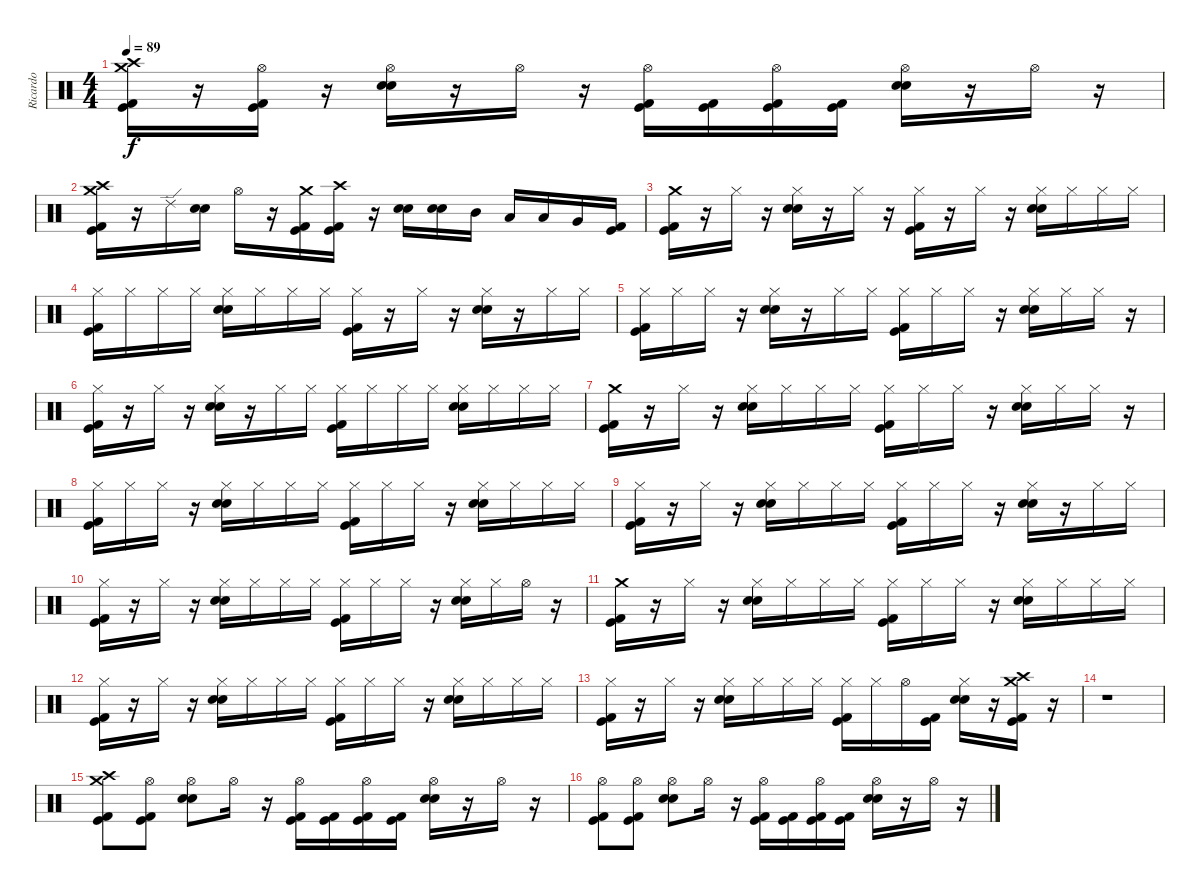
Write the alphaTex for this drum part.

\track ("Ricardo" "Ricardo") {instrument percussion}
\staff {score}
\articulation defaults
\ts (4 4)
\tempo 89
\clef neutral
\ks c
("Crash high (hit)" "Crash medium (hit)" "Kick (hit) 2" "Kick (hit)").16{dy f} r.16 ("Hi-Hat (open)" "Kick (hit) 2" "Kick (hit)").16 r.16 ("Hi-Hat (open)" "Electric Snare (hit)" "Snare (hit) 2").16 r.16 "Hi-Hat (open)".16 r.16 ("Hi-Hat (open)" "Kick (hit) 2" "Kick (hit)").16 ("Kick (hit) 2" "Kick (hit)").16 ("Hi-Hat (open)" "Kick (hit) 2" "Kick (hit)").16 ("Kick (hit) 2" "Kick (hit)").16 ("Hi-Hat (open)" "Electric Snare (hit)" "Snare (hit) 2").16 r.16 "Hi-Hat (open)".16 r.16 |
("Crash high (hit)" "Crash medium (hit)" "Kick (hit) 2" "Kick (hit)").16 r.16 "Ride (edge) 2".16 ("Electric Snare (hit)" "Snare (hit) 2").16 "Hi-Hat (open)".16 r.16 ("Crash medium (hit)" "Kick (hit) 2" "Kick (hit)").16 ("Crash high (hit)" "Kick (hit) 2" "Kick (hit)").16 r.16 ("Electric Snare (hit)" "Snare (hit) 2").16 ("Electric Snare (hit)" "Snare (hit) 2").16 "Mid Tom (hit)".16 "Low Tom (hit)".16 "Low Tom (hit)".16 "Very Low Tom (hit)".16 ("Kick (hit) 2" "Kick (hit)").16 |
("Crash medium (hit)" "Kick (hit) 2" "Kick (hit)").16 r.16 "Hi-Hat (closed)".16 r.16 ("Hi-Hat (closed)" "Electric Snare (hit)" "Snare (hit) 2").16 r.16 "Hi-Hat (closed)".16 r.16 ("Hi-Hat (closed)" "Kick (hit) 2" "Kick (hit)").16 r.16 "Hi-Hat (closed)".16 r.16 ("Hi-Hat (closed)" "Electric Snare (hit)" "Snare (hit) 2").16 "Hi-Hat (closed)".16 "Hi-Hat (closed)".16 "Hi-Hat (closed)".16 |
("Hi-Hat (closed)" "Kick (hit) 2" "Kick (hit)").16 "Hi-Hat (closed)".16 "Hi-Hat (closed)".16 "Hi-Hat (closed)".16 ("Hi-Hat (closed)" "Electric Snare (hit)" "Snare (hit) 2").16 "Hi-Hat (closed)".16 "Hi-Hat (closed)".16 "Hi-Hat (closed)".16 ("Hi-Hat (closed)" "Kick (hit) 2" "Kick (hit)").16 r.16 "Hi-Hat (closed)".16 r.16 ("Hi-Hat (closed)" "Electric Snare (hit)" "Snare (hit) 2").16 r.16 "Hi-Hat (closed)".16 "Hi-Hat (closed)".16 |
("Kick (hit) 2" "Kick (hit)" "Hi-Hat (closed)").16 "Hi-Hat (closed)".16 "Hi-Hat (closed)".16 r.16 ("Hi-Hat (closed)" "Electric Snare (hit)" "Snare (hit) 2").16 r.16 "Hi-Hat (closed)".16 "Hi-Hat (closed)".16 ("Hi-Hat (closed)" "Kick (hit) 2" "Kick (hit)").16 "Hi-Hat (closed)".16 "Hi-Hat (closed)".16 r.16 ("Hi-Hat (closed)" "Snare (hit) 2" "Electric Snare (hit)").16 "Hi-Hat (closed)".16 "Hi-Hat (closed)".16 r.16 |
("Hi-Hat (closed)" "Kick (hit) 2" "Kick (hit)").16 r.16 "Hi-Hat (closed)".16 r.16 ("Electric Snare (hit)" "Snare (hit) 2" "Hi-Hat (closed)").16 r.16 "Hi-Hat (closed)".16 "Hi-Hat (closed)".16 ("Kick (hit) 2" "Kick (hit)" "Hi-Hat (closed)").16 "Hi-Hat (closed)".16 "Hi-Hat (closed)".16 "Hi-Hat (closed)".16 ("Electric Snare (hit)" "Snare (hit) 2" "Hi-Hat (closed)").16 "Hi-Hat (closed)".16 "Hi-Hat (closed)".16 "Hi-Hat (closed)".16 |
("Crash medium (hit)" "Kick (hit) 2" "Kick (hit)").16 r.16 "Hi-Hat (closed)".16 r.16 ("Hi-Hat (closed)" "Electric Snare (hit)" "Snare (hit) 2").16 "Hi-Hat (closed)".16 "Hi-Hat (closed)".16 "Hi-Hat (closed)".16 ("Kick (hit) 2" "Kick (hit)" "Hi-Hat (closed)").16 "Hi-Hat (closed)".16 "Hi-Hat (closed)".16 r.16 ("Electric Snare (hit)" "Snare (hit) 2" "Hi-Hat (closed)").16 "Hi-Hat (closed)".16 "Hi-Hat (closed)".16 r.16 |
("Hi-Hat (closed)" "Kick (hit) 2" "Kick (hit)").16 "Hi-Hat (closed)".16 "Hi-Hat (closed)".16 r.16 ("Hi-Hat (closed)" "Electric Snare (hit)" "Snare (hit) 2").16 "Hi-Hat (closed)".16 "Hi-Hat (closed)".16 "Hi-Hat (closed)".16 ("Kick (hit) 2" "Kick (hit)" "Hi-Hat (closed)").16 "Hi-Hat (closed)".16 "Hi-Hat (closed)".16 r.16 ("Snare (hit) 2" "Electric Snare (hit)" "Hi-Hat (closed)").16 "Hi-Hat (closed)".16 "Hi-Hat (closed)".16 "Hi-Hat (closed)".16 |
("Hi-Hat (closed)" "Kick (hit) 2" "Kick (hit)").16 r.16 "Hi-Hat (closed)".16 r.16 ("Hi-Hat (closed)" "Electric Snare (hit)" "Snare (hit) 2").16 "Hi-Hat (closed)".16 "Hi-Hat (closed)".16 "Hi-Hat (closed)".16 ("Hi-Hat (closed)" "Kick (hit) 2" "Kick (hit)").16 "Hi-Hat (closed)".16 "Hi-Hat (closed)".16 r.16 ("Hi-Hat (closed)" "Electric Snare (hit)" "Snare (hit) 2").16 r.16 "Hi-Hat (closed)".16 "Hi-Hat (closed)".16 |
("Hi-Hat (closed)" "Kick (hit) 2" "Kick (hit)").16 r.16 "Hi-Hat (closed)".16 r.16 ("Electric Snare (hit)" "Snare (hit) 2" "Hi-Hat (closed)").16 "Hi-Hat (closed)".16 "Hi-Hat (closed)".16 "Hi-Hat (closed)".16 ("Kick (hit) 2" "Kick (hit)" "Hi-Hat (closed)").16 "Hi-Hat (closed)".16 "Hi-Hat (closed)".16 r.16 ("Electric Snare (hit)" "Snare (hit) 2" "Hi-Hat (closed)").16 "Hi-Hat (closed)".16 "Hi-Hat (open)".16 r.16 |
("Crash medium (hit)" "Kick (hit) 2" "Kick (hit)").16 r.16 "Hi-Hat (closed)".16 r.16 ("Electric Snare (hit)" "Snare (hit) 2" "Hi-Hat (closed)").16 "Hi-Hat (closed)".16 "Hi-Hat (closed)".16 "Hi-Hat (closed)".16 ("Kick (hit) 2" "Kick (hit)" "Hi-Hat (closed)").16 "Hi-Hat (closed)".16 "Hi-Hat (closed)".16 r.16 ("Electric Snare (hit)" "Snare (hit) 2" "Hi-Hat (closed)").16 "Hi-Hat (closed)".16 "Hi-Hat (closed)".16 "Hi-Hat (closed)".16 |
("Hi-Hat (closed)" "Kick (hit) 2" "Kick (hit)").16 r.16 "Hi-Hat (closed)".16 r.16 ("Hi-Hat (closed)" "Electric Snare (hit)" "Snare (hit) 2").16 "Hi-Hat (closed)".16 "Hi-Hat (closed)".16 "Hi-Hat (closed)".16 ("Hi-Hat (closed)" "Kick (hit) 2" "Kick (hit)").16 "Hi-Hat (closed)".16 "Hi-Hat (closed)".16 r.16 ("Hi-Hat (closed)" "Electric Snare (hit)" "Snare (hit) 2").16 "Hi-Hat (closed)".16 "Hi-Hat (closed)".16 "Hi-Hat (closed)".16 |
("Hi-Hat (closed)" "Kick (hit) 2" "Kick (hit)").16 r.16 "Hi-Hat (closed)".16 r.16 ("Electric Snare (hit)" "Snare (hit) 2" "Hi-Hat (closed)").16 "Hi-Hat (closed)".16 "Hi-Hat (closed)".16 "Hi-Hat (closed)".16 ("Kick (hit) 2" "Kick (hit)" "Hi-Hat (closed)").16 "Hi-Hat (closed)".16 "Hi-Hat (open)".16 ("Kick (hit) 2" "Kick (hit)").16 ("Electric Snare (hit)" "Snare (hit) 2" "Hi-Hat (closed)").16 r.16 ("Kick (hit) 2" "Kick (hit)" "Crash high (hit)" "Crash medium (hit)").16 r.16 |
r.1 |
("Crash medium (hit)" "Crash high (hit)" "Kick (hit) 2" "Kick (hit)").8 ("Hi-Hat (open)" "Kick (hit) 2" "Kick (hit)").8 ("Hi-Hat (open)" "Electric Snare (hit)" "Snare (hit) 2").8 "Hi-Hat (open)".16 r.16 ("Hi-Hat (open)" "Kick (hit) 2" "Kick (hit)").16 ("Kick (hit) 2" "Kick (hit)").16 ("Hi-Hat (open)" "Kick (hit) 2" "Kick (hit)").16 ("Kick (hit) 2" "Kick (hit)").16 ("Hi-Hat (open)" "Electric Snare (hit)" "Snare (hit) 2").16 r.16 "Hi-Hat (open)".16 r.16 |
("Hi-Hat (open)" "Kick (hit) 2" "Kick (hit)").8 ("Hi-Hat (open)" "Kick (hit) 2" "Kick (hit)").8 ("Hi-Hat (open)" "Electric Snare (hit)" "Snare (hit) 2").8 "Hi-Hat (open)".16 r.16 ("Hi-Hat (open)" "Kick (hit) 2" "Kick (hit)").16 ("Kick (hit) 2" "Kick (hit)").16 ("Hi-Hat (open)" "Kick (hit) 2" "Kick (hit)").16 ("Kick (hit) 2" "Kick (hit)").16 ("Hi-Hat (open)" "Electric Snare (hit)" "Snare (hit) 2").16 r.16 "Hi-Hat (open)".16 r.16
